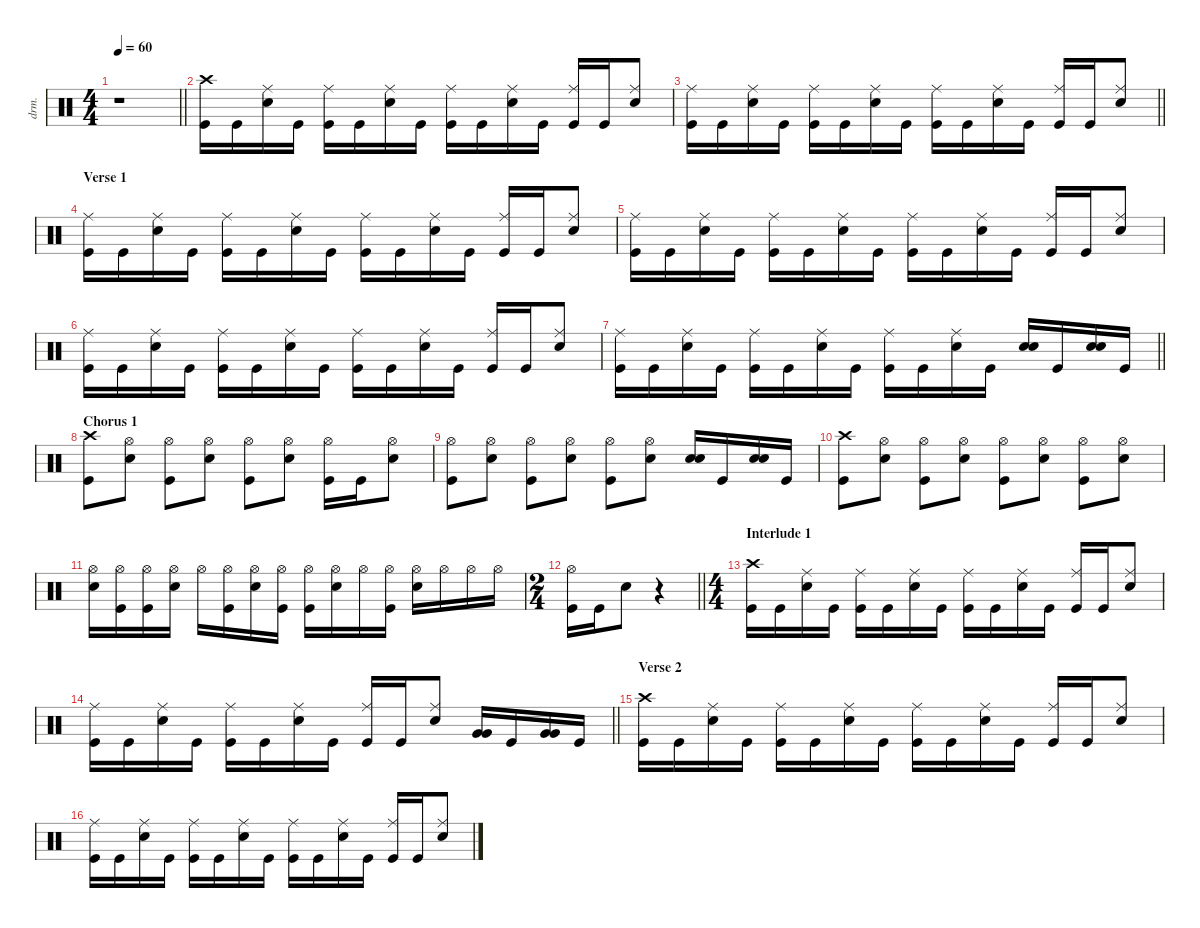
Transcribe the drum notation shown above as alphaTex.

\defaultSystemsLayout 4
\hideDynamics
\bracketExtendMode nobrackets
\otherSystemsTrackNameOrientation horizontal
\track ("Drums" "drm.") {defaultSystemsLayout 4 instrument percussion}
\staff {score}
\articulation defaults
\ts (4 4)
\tempo 60
\clef neutral
\barLineRight lightlight
\ks c
r.1{dy f beam Down} |
("Crash high (hit)" "Kick (hit)").16{beam Down} "Kick (hit)".16{beam Down} ("Ride (middle)" "Snare (hit) 2").16{beam Down} "Kick (hit)".16{beam Down} ("Ride (middle)" "Kick (hit)").16{beam Down} "Kick (hit)".16{beam Down} ("Ride (middle)" "Snare (hit) 2").16{beam Down} "Kick (hit)".16{beam Down} ("Ride (middle)" "Kick (hit)").16{beam Down} "Kick (hit)".16{beam Down} ("Ride (middle)" "Snare (hit) 2").16{beam Down} "Kick (hit)".16{beam Down} ("Ride (middle)" "Kick (hit)").16{beam Up} "Kick (hit)".16{beam Up} ("Ride (middle)" "Snare (hit) 2").8{beam Up} |
\barLineRight lightlight
("Ride (middle)" "Kick (hit)").16{beam Down} "Kick (hit)".16{beam Down} ("Ride (middle)" "Snare (hit) 2").16{beam Down} "Kick (hit)".16{beam Down} ("Ride (middle)" "Kick (hit)").16{beam Down} "Kick (hit)".16{beam Down} ("Ride (middle)" "Snare (hit) 2").16{beam Down} "Kick (hit)".16{beam Down} ("Ride (middle)" "Kick (hit)").16{beam Down} "Kick (hit)".16{beam Down} ("Ride (middle)" "Snare (hit) 2").16{beam Down} "Kick (hit)".16{beam Down} ("Ride (middle)" "Kick (hit)").16{beam Up} "Kick (hit)".16{beam Up} ("Ride (middle)" "Snare (hit) 2").8{beam Up} |
\section ("" "Verse 1")
("Ride (middle)" "Kick (hit)").16{beam Down} "Kick (hit)".16{beam Down} ("Ride (middle)" "Snare (hit) 2").16{beam Down} "Kick (hit)".16{beam Down} ("Ride (middle)" "Kick (hit)").16{beam Down} "Kick (hit)".16{beam Down} ("Ride (middle)" "Snare (hit) 2").16{beam Down} "Kick (hit)".16{beam Down} ("Ride (middle)" "Kick (hit)").16{beam Down} "Kick (hit)".16{beam Down} ("Ride (middle)" "Snare (hit) 2").16{beam Down} "Kick (hit)".16{beam Down} ("Ride (middle)" "Kick (hit)").16{beam Up} "Kick (hit)".16{beam Up} ("Ride (middle)" "Snare (hit) 2").8{beam Up} |
("Ride (middle)" "Kick (hit)").16{beam Down} "Kick (hit)".16{beam Down} ("Ride (middle)" "Snare (hit) 2").16{beam Down} "Kick (hit)".16{beam Down} ("Ride (middle)" "Kick (hit)").16{beam Down} "Kick (hit)".16{beam Down} ("Ride (middle)" "Snare (hit) 2").16{beam Down} "Kick (hit)".16{beam Down} ("Ride (middle)" "Kick (hit)").16{beam Down} "Kick (hit)".16{beam Down} ("Ride (middle)" "Snare (hit) 2").16{beam Down} "Kick (hit)".16{beam Down} ("Ride (middle)" "Kick (hit)").16{beam Up} "Kick (hit)".16{beam Up} ("Ride (middle)" "Snare (hit) 2").8{beam Up} |
("Ride (middle)" "Kick (hit)").16{beam Down} "Kick (hit)".16{beam Down} ("Ride (middle)" "Snare (hit) 2").16{beam Down} "Kick (hit)".16{beam Down} ("Ride (middle)" "Kick (hit)").16{beam Down} "Kick (hit)".16{beam Down} ("Ride (middle)" "Snare (hit) 2").16{beam Down} "Kick (hit)".16{beam Down} ("Ride (middle)" "Kick (hit)").16{beam Down} "Kick (hit)".16{beam Down} ("Ride (middle)" "Snare (hit) 2").16{beam Down} "Kick (hit)".16{beam Down} ("Ride (middle)" "Kick (hit)").16{beam Up} "Kick (hit)".16{beam Up} ("Ride (middle)" "Snare (hit) 2").8{beam Up} |
\barLineRight lightlight
("Ride (middle)" "Kick (hit)").16{beam Down} "Kick (hit)".16{beam Down} ("Ride (middle)" "Snare (hit) 2").16{beam Down} "Kick (hit)".16{beam Down} ("Ride (middle)" "Kick (hit)").16{beam Down} "Kick (hit)".16{beam Down} ("Ride (middle)" "Snare (hit) 2").16{beam Down} "Kick (hit)".16{beam Down} ("Ride (middle)" "Kick (hit)").16{beam Down} "Kick (hit)".16{beam Down} ("Ride (middle)" "Snare (hit) 2").16{beam Down} "Kick (hit)".16{beam Down} ("Snare (hit) 2" "Snare (hit) 2").16{beam Up} "Kick (hit)".16{beam Up} ("Snare (hit) 2" "Snare (hit) 2").16{beam Up} "Kick (hit)".16{beam Up} |
\section ("" "Chorus 1")
("Crash high (hit)" "Kick (hit)").8{beam Down} ("Hi-Hat (open)" "Snare (hit) 2").8{beam Down} ("Hi-Hat (open)" "Kick (hit)").8{beam Down} ("Hi-Hat (open)" "Snare (hit) 2").8{beam Down} ("Hi-Hat (open)" "Kick (hit)").8{beam Down} ("Hi-Hat (open)" "Snare (hit) 2").8{beam Down} ("Hi-Hat (open)" "Kick (hit)").16{beam Down} "Kick (hit)".16{beam Down} ("Hi-Hat (open)" "Snare (hit) 2").8{beam Down} |
("Hi-Hat (open)" "Kick (hit)").8{beam Down} ("Hi-Hat (open)" "Snare (hit) 2").8{beam Down} ("Hi-Hat (open)" "Kick (hit)").8{beam Down} ("Hi-Hat (open)" "Snare (hit) 2").8{beam Down} ("Hi-Hat (open)" "Kick (hit)").8{beam Down} ("Hi-Hat (open)" "Snare (hit) 2").8{beam Down} ("Snare (hit) 2" "Snare (hit) 2").16{beam Up} "Kick (hit)".16{beam Up} ("Snare (hit) 2" "Snare (hit) 2").16{beam Up} "Kick (hit)".16{beam Up} |
("Crash high (hit)" "Kick (hit)").8{beam Down} ("Hi-Hat (open)" "Snare (hit) 2").8{beam Down} ("Hi-Hat (open)" "Kick (hit)").8{beam Down} ("Hi-Hat (open)" "Snare (hit) 2").8{beam Down} ("Hi-Hat (open)" "Kick (hit)").8{beam Down} ("Hi-Hat (open)" "Snare (hit) 2").8{beam Down} ("Hi-Hat (open)" "Kick (hit)").8{beam Down} ("Hi-Hat (open)" "Snare (hit) 2").8{beam Down} |
("Hi-Hat (open)" "Snare (hit) 2").16{beam Down} ("Hi-Hat (open)" "Kick (hit)").16{beam Down} ("Hi-Hat (open)" "Kick (hit)").16{beam Down} ("Hi-Hat (open)" "Snare (hit) 2").16{beam Down} "Hi-Hat (open)".16{beam Down} ("Hi-Hat (open)" "Kick (hit)").16{beam Down} ("Hi-Hat (open)" "Snare (hit) 2").16{beam Down} ("Hi-Hat (open)" "Kick (hit)").16{beam Down} ("Hi-Hat (open)" "Kick (hit)").16{beam Down} ("Hi-Hat (open)" "Snare (hit) 2").16{beam Down} "Hi-Hat (open)".16{beam Down} ("Hi-Hat (open)" "Kick (hit)").16{beam Down} ("Hi-Hat (open)" "Snare (hit) 2").16{beam Down} "Hi-Hat (open)".16{beam Down} "Hi-Hat (open)".16{beam Down} "Hi-Hat (open)".16{beam Down} |
\ts (2 4)
\barLineRight lightlight
("Hi-Hat (open)" "Kick (hit)").16{beam Down} "Kick (hit)".16{beam Down} "Snare (hit) 2".8{beam Down} r.4{beam Down} |
\ts (4 4)
\section ("" "Interlude 1")
("Crash high (hit)" "Kick (hit)").16{beam Down} "Kick (hit)".16{beam Down} ("Ride (middle)" "Snare (hit) 2").16{beam Down} "Kick (hit)".16{beam Down} ("Ride (middle)" "Kick (hit)").16{beam Down} "Kick (hit)".16{beam Down} ("Ride (middle)" "Snare (hit) 2").16{beam Down} "Kick (hit)".16{beam Down} ("Ride (middle)" "Kick (hit)").16{beam Down} "Kick (hit)".16{beam Down} ("Ride (middle)" "Snare (hit) 2").16{beam Down} "Kick (hit)".16{beam Down} ("Ride (middle)" "Kick (hit)").16{beam Up} "Kick (hit)".16{beam Up} ("Ride (middle)" "Snare (hit) 2").8{beam Up} |
\barLineRight lightlight
("Ride (middle)" "Kick (hit)").16{beam Down} "Kick (hit)".16{beam Down} ("Ride (middle)" "Snare (hit) 2").16{beam Down} "Kick (hit)".16{beam Down} ("Ride (middle)" "Kick (hit)").16{beam Down} "Kick (hit)".16{beam Down} ("Ride (middle)" "Snare (hit) 2").16{beam Down} "Kick (hit)".16{beam Down} ("Ride (middle)" "Kick (hit)").16{beam Up} "Kick (hit)".16{beam Up} ("Ride (middle)" "Snare (hit) 2").8{beam Up} ("Very Low Tom (hit)" "Very Low Tom (hit)").16{beam Up} "Kick (hit)".16{beam Up} ("Very Low Tom (hit)" "Very Low Tom (hit)").16{beam Up} "Kick (hit)".16{beam Up} |
\section ("" "Verse 2")
("Crash high (hit)" "Kick (hit)").16{beam Down} "Kick (hit)".16{beam Down} ("Ride (middle)" "Snare (hit) 2").16{beam Down} "Kick (hit)".16{beam Down} ("Ride (middle)" "Kick (hit)").16{beam Down} "Kick (hit)".16{beam Down} ("Ride (middle)" "Snare (hit) 2").16{beam Down} "Kick (hit)".16{beam Down} ("Ride (middle)" "Kick (hit)").16{beam Down} "Kick (hit)".16{beam Down} ("Ride (middle)" "Snare (hit) 2").16{beam Down} "Kick (hit)".16{beam Down} ("Ride (middle)" "Kick (hit)").16{beam Up} "Kick (hit)".16{beam Up} ("Ride (middle)" "Snare (hit) 2").8{beam Up} |
("Ride (middle)" "Kick (hit)").16{beam Down} "Kick (hit)".16{beam Down} ("Ride (middle)" "Snare (hit) 2").16{beam Down} "Kick (hit)".16{beam Down} ("Ride (middle)" "Kick (hit)").16{beam Down} "Kick (hit)".16{beam Down} ("Ride (middle)" "Snare (hit) 2").16{beam Down} "Kick (hit)".16{beam Down} ("Ride (middle)" "Kick (hit)").16{beam Down} "Kick (hit)".16{beam Down} ("Ride (middle)" "Snare (hit) 2").16{beam Down} "Kick (hit)".16{beam Down} ("Ride (middle)" "Kick (hit)").16{beam Up} "Kick (hit)".16{beam Up} ("Ride (middle)" "Snare (hit) 2").8{beam Up}
